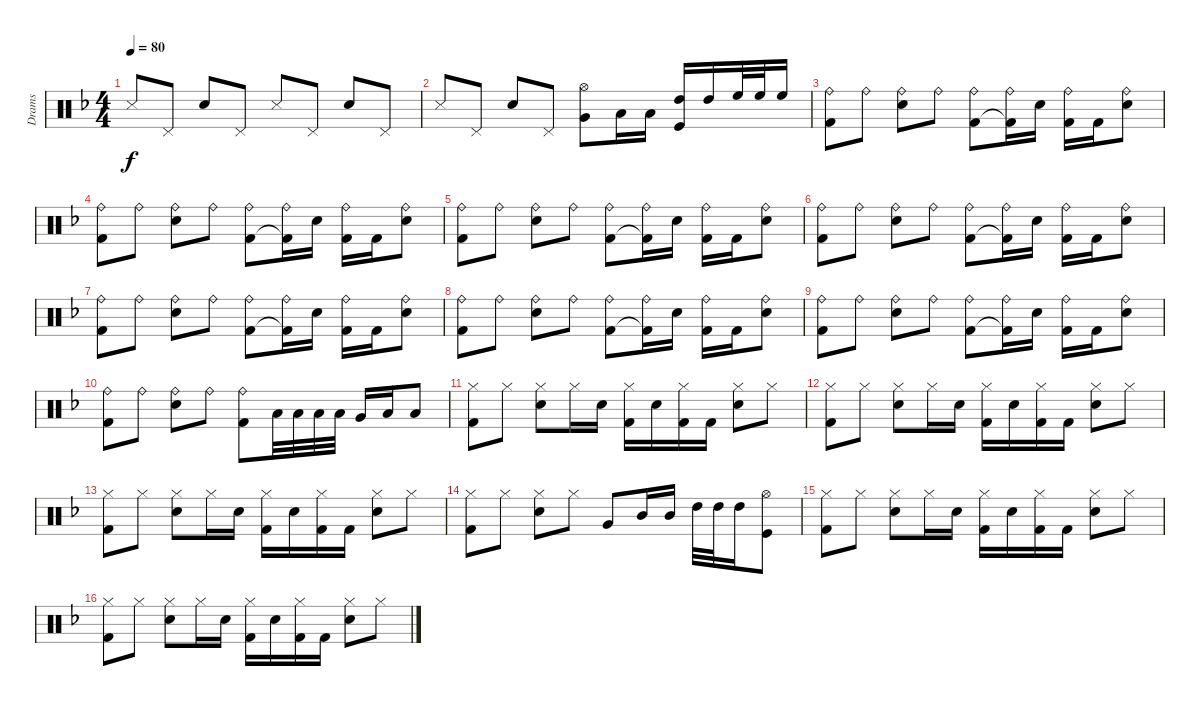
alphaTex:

\track ("Drams" "Drams") {instrument percussion}
\staff {score}
\articulation defaults
\ts (4 4)
\tempo 80
\clef neutral
\ks dminor "Snare (side stick) 3".8{dy f} "Pedal Hi-Hat (hit)".8 "Electric Snare (hit)".8 "Pedal Hi-Hat (hit)".8 "Snare (side stick) 3".8 "Pedal Hi-Hat (hit)".8 "Electric Snare (hit)".8 "Pedal Hi-Hat (hit)".8
|
"Snare (side stick) 3".8 "Pedal Hi-Hat (hit)".8 "Electric Snare (hit)".8 "Pedal Hi-Hat (hit)".8 ("Very Low Tom (hit)" "Hi-Hat (open)").8 "Low Tom (hit)".16 "Low Tom (hit)".16 ("High Tom (hit)" "Kick (hit)").16 "High Tom (hit)".16 "High Floor Tom (hit)".32 "High Floor Tom (hit)".32 "High Floor Tom (hit)".16 |
("Ride (bell)" "Kick (hit) 2").8 "Ride (bell)".8 ("Ride (bell)" "Electric Snare (hit)").8 "Ride (bell)".8 ("Ride (bell)" "Kick (hit) 2").8 ("Ride (bell)" "Kick (hit) 2"{t}).16 "Electric Snare (hit)".16 ("Kick (hit) 2" "Ride (bell)").16 "Kick (hit) 2".16 ("Electric Snare (hit)" "Ride (bell)").8 |
("Ride (bell)" "Kick (hit) 2").8 "Ride (bell)".8 ("Ride (bell)" "Electric Snare (hit)").8 "Ride (bell)".8 ("Ride (bell)" "Kick (hit) 2").8 ("Ride (bell)" "Kick (hit) 2"{t}).16 "Electric Snare (hit)".16 ("Kick (hit) 2" "Ride (bell)").16 "Kick (hit) 2".16 ("Electric Snare (hit)" "Ride (bell)").8 |
("Ride (bell)" "Kick (hit) 2").8 "Ride (bell)".8 ("Ride (bell)" "Electric Snare (hit)").8 "Ride (bell)".8 ("Ride (bell)" "Kick (hit) 2").8 ("Ride (bell)" "Kick (hit) 2"{t}).16 "Electric Snare (hit)".16 ("Kick (hit) 2" "Ride (bell)").16 "Kick (hit) 2".16 ("Electric Snare (hit)" "Ride (bell)").8 |
("Ride (bell)" "Kick (hit) 2").8 "Ride (bell)".8 ("Ride (bell)" "Electric Snare (hit)").8 "Ride (bell)".8 ("Ride (bell)" "Kick (hit) 2").8 ("Ride (bell)" "Kick (hit) 2"{t}).16 "Electric Snare (hit)".16 ("Kick (hit) 2" "Ride (bell)").16 "Kick (hit) 2".16 ("Electric Snare (hit)" "Ride (bell)").8 |
("Ride (bell)" "Kick (hit) 2").8 "Ride (bell)".8 ("Ride (bell)" "Electric Snare (hit)").8 "Ride (bell)".8 ("Ride (bell)" "Kick (hit) 2").8 ("Ride (bell)" "Kick (hit) 2"{t}).16 "Electric Snare (hit)".16 ("Kick (hit) 2" "Ride (bell)").16 "Kick (hit) 2".16 ("Electric Snare (hit)" "Ride (bell)").8 |
("Ride (bell)" "Kick (hit) 2").8 "Ride (bell)".8 ("Ride (bell)" "Electric Snare (hit)").8 "Ride (bell)".8 ("Ride (bell)" "Kick (hit) 2").8 ("Ride (bell)" "Kick (hit) 2"{t}).16 "Electric Snare (hit)".16 ("Kick (hit) 2" "Ride (bell)").16 "Kick (hit) 2".16 ("Electric Snare (hit)" "Ride (bell)").8 |
("Ride (bell)" "Kick (hit) 2").8 "Ride (bell)".8 ("Ride (bell)" "Electric Snare (hit)").8 "Ride (bell)".8 ("Ride (bell)" "Kick (hit) 2").8 ("Ride (bell)" "Kick (hit) 2"{t}).16 "Electric Snare (hit)".16 ("Kick (hit) 2" "Ride (bell)").16 "Kick (hit) 2".16 ("Electric Snare (hit)" "Ride (bell)").8 |
("Ride (bell)" "Kick (hit) 2").8 "Ride (bell)".8 ("Ride (bell)" "Electric Snare (hit)").8 "Ride (bell)".8 ("Ride (bell)" "Kick (hit) 2").8 "Low Floor Tom (hit)".32 "Low Floor Tom (hit)".32 "Low Floor Tom (hit)".32 "Low Floor Tom (hit)".32 "Very Low Tom (hit)".16 "Low Tom (hit)".16 "Low Tom (hit)".8 |
("Kick (hit) 2" "Hi-Hat (closed)").8 "Hi-Hat (closed)".8 ("Electric Snare (hit)" "Hi-Hat (closed)").8 "Hi-Hat (closed)".16 "Electric Snare (hit)".16 ("Kick (hit) 2" "Hi-Hat (closed)").16 "Electric Snare (hit)".16 ("Kick (hit) 2" "Hi-Hat (closed)").16 "Kick (hit) 2".16 ("Electric Snare (hit)" "Hi-Hat (closed)").8 "Hi-Hat (closed)".8 |
("Kick (hit) 2" "Hi-Hat (closed)").8 "Hi-Hat (closed)".8 ("Electric Snare (hit)" "Hi-Hat (closed)").8 "Hi-Hat (closed)".16 "Electric Snare (hit)".16 ("Kick (hit) 2" "Hi-Hat (closed)").16 "Electric Snare (hit)".16 ("Kick (hit) 2" "Hi-Hat (closed)").16 "Kick (hit) 2".16 ("Electric Snare (hit)" "Hi-Hat (closed)").8 "Hi-Hat (closed)".8 |
("Kick (hit) 2" "Hi-Hat (closed)").8 "Hi-Hat (closed)".8 ("Electric Snare (hit)" "Hi-Hat (closed)").8 "Hi-Hat (closed)".16 "Electric Snare (hit)".16 ("Kick (hit) 2" "Hi-Hat (closed)").16 "Electric Snare (hit)".16 ("Kick (hit) 2" "Hi-Hat (closed)").16 "Kick (hit) 2".16 ("Electric Snare (hit)" "Hi-Hat (closed)").8 "Hi-Hat (closed)".8 |
("Kick (hit) 2" "Hi-Hat (closed)").8 "Hi-Hat (closed)".8 ("Electric Snare (hit)" "Hi-Hat (closed)").8 "Hi-Hat (closed)".8 "Very Low Tom (hit)".8 "Mid Tom (hit)".16 "Mid Tom (hit)".16 "High Tom (hit)".32 "High Tom (hit)".32 "High Tom (hit)".16 ("Kick (hit)" "Hi-Hat (open)").8 |
("Kick (hit) 2" "Hi-Hat (closed)").8 "Hi-Hat (closed)".8 ("Electric Snare (hit)" "Hi-Hat (closed)").8 "Hi-Hat (closed)".16 "Electric Snare (hit)".16 ("Kick (hit) 2" "Hi-Hat (closed)").16 "Electric Snare (hit)".16 ("Kick (hit) 2" "Hi-Hat (closed)").16 "Kick (hit) 2".16 ("Electric Snare (hit)" "Hi-Hat (closed)").8 "Hi-Hat (closed)".8 |
("Kick (hit) 2" "Hi-Hat (closed)").8 "Hi-Hat (closed)".8 ("Electric Snare (hit)" "Hi-Hat (closed)").8 "Hi-Hat (closed)".16 "Electric Snare (hit)".16 ("Kick (hit) 2" "Hi-Hat (closed)").16 "Electric Snare (hit)".16 ("Kick (hit) 2" "Hi-Hat (closed)").16 "Kick (hit) 2".16 ("Electric Snare (hit)" "Hi-Hat (closed)").8 "Hi-Hat (closed)".8
